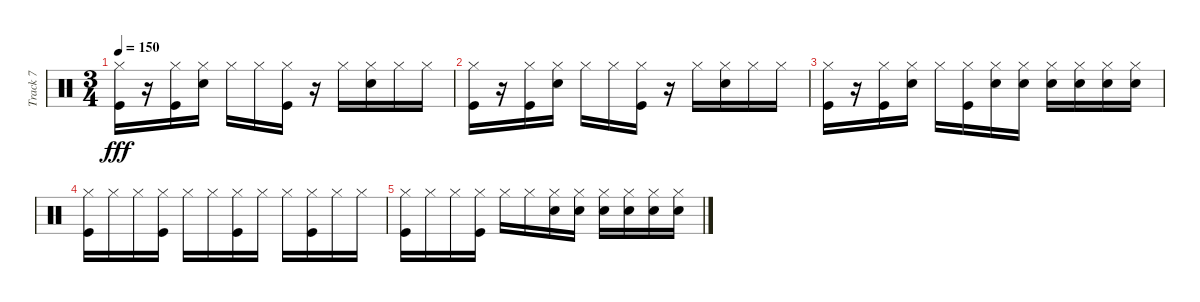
\track ("Track 7" "Track 7") {instrument percussion}
\staff {score}
\articulation defaults
\ts (3 4)
\tempo 150
\clef neutral
\ks c
("Kick (hit)" "Hi-Hat (closed)").16{dy fff} r.16 ("Kick (hit)" "Hi-Hat (closed)").16 ("Snare (hit) 2" "Hi-Hat (closed)").16 "Hi-Hat (closed)".16 "Hi-Hat (closed)".16 ("Kick (hit)" "Hi-Hat (closed)").16 r.16 "Hi-Hat (closed)".16 ("Snare (hit) 2" "Hi-Hat (closed)").16 "Hi-Hat (closed)".16 "Hi-Hat (closed)".16 |
("Kick (hit)" "Hi-Hat (closed)").16 r.16 ("Kick (hit)" "Hi-Hat (closed)").16 ("Snare (hit) 2" "Hi-Hat (closed)").16 "Hi-Hat (closed)".16 "Hi-Hat (closed)".16 ("Kick (hit)" "Hi-Hat (closed)").16 r.16 "Hi-Hat (closed)".16 ("Snare (hit) 2" "Hi-Hat (closed)").16 "Hi-Hat (closed)".16 "Hi-Hat (closed)".16 |
("Kick (hit)" "Hi-Hat (closed)").16 r.16 ("Kick (hit)" "Hi-Hat (closed)").16 ("Snare (hit) 2" "Hi-Hat (closed)").16 "Hi-Hat (closed)".16 ("Kick (hit)" "Hi-Hat (closed)").16 ("Snare (hit) 2" "Hi-Hat (closed)").16 ("Snare (hit) 2" "Hi-Hat (closed)").16 ("Snare (hit) 2" "Hi-Hat (closed)").16 ("Snare (hit) 2" "Hi-Hat (closed)").16 ("Snare (hit) 2" "Hi-Hat (closed)").16 ("Snare (hit) 2" "Hi-Hat (closed)").16 |
("Kick (hit)" "Hi-Hat (closed)").16 "Hi-Hat (closed)".16 "Hi-Hat (closed)".16 ("Kick (hit)" "Hi-Hat (closed)").16 "Hi-Hat (closed)".16 "Hi-Hat (closed)".16 ("Kick (hit)" "Hi-Hat (closed)").16 "Hi-Hat (closed)".16 "Hi-Hat (closed)".16 ("Kick (hit)" "Hi-Hat (closed)").16 "Hi-Hat (closed)".16 "Hi-Hat (closed)".16 |
("Kick (hit)" "Hi-Hat (closed)").16 "Hi-Hat (closed)".16 "Hi-Hat (closed)".16 ("Kick (hit)" "Hi-Hat (closed)").16 "Hi-Hat (closed)".16 "Hi-Hat (closed)".16 ("Snare (hit) 2" "Hi-Hat (closed)").16 ("Snare (hit) 2" "Hi-Hat (closed)").16 ("Snare (hit) 2" "Hi-Hat (closed)").16 ("Snare (hit) 2" "Hi-Hat (closed)").16 ("Snare (hit) 2" "Hi-Hat (closed)").16 ("Snare (hit) 2" "Hi-Hat (closed)").16
